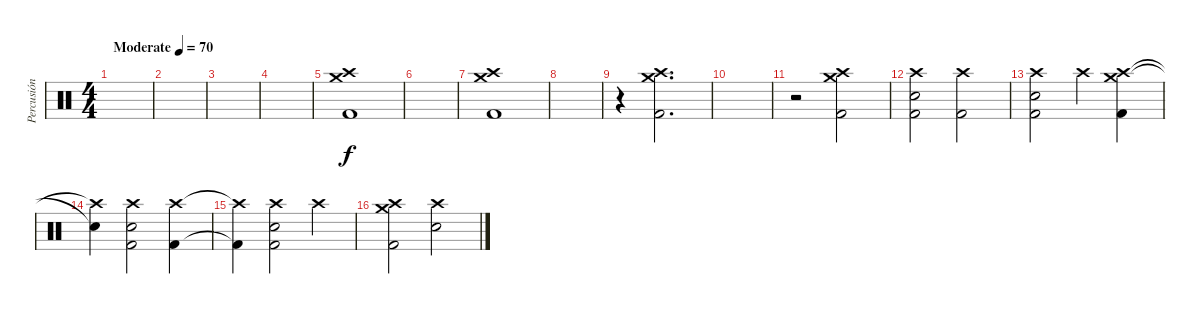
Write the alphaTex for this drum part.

\track ("Percusión" "Percusión") {instrument percussion}
\staff {score}
\articulation defaults
\ts (4 4)
\tempo (70 "Moderate")
\clef neutral
\ks c
|
|
|
|
("Crash high (hit)" "Crash medium (hit)" "Kick (hit) 2").1 |
|
("Crash medium (hit)" "Crash high (hit)" "Kick (hit) 2").1 |
|
r.4 ("Crash medium (hit)" "Crash high (hit)" "Kick (hit) 2").2{d} |
|
r.2 ("Crash medium (hit)" "Crash high (hit)" "Kick (hit) 2").2 |
("Crash high (hit)" "Snare (hit) 2" "Kick (hit) 2").2 ("Crash high (hit)" "Kick (hit) 2").2 |
("Crash high (hit)" "Snare (hit) 2" "Kick (hit) 2").2 "Crash high (hit)".4 ("Crash medium (hit)" "Crash high (hit)" "Kick (hit) 2").4 |
("Crash high (hit)"{t} "Snare (hit)"{t}).4 ("Crash high (hit)" "Snare (hit) 2" "Kick (hit) 2").2 ("Crash high (hit)" "Kick (hit) 2").4 |
("Crash high (hit)"{t} "Kick (hit) 2"{t}).4 ("Crash high (hit)" "Snare (hit) 2" "Kick (hit) 2").2 "Crash high (hit)".4 |
("Crash medium (hit)" "Crash high (hit)" "Kick (hit) 2").2 ("Crash high (hit)" "Snare (hit) 2").2
